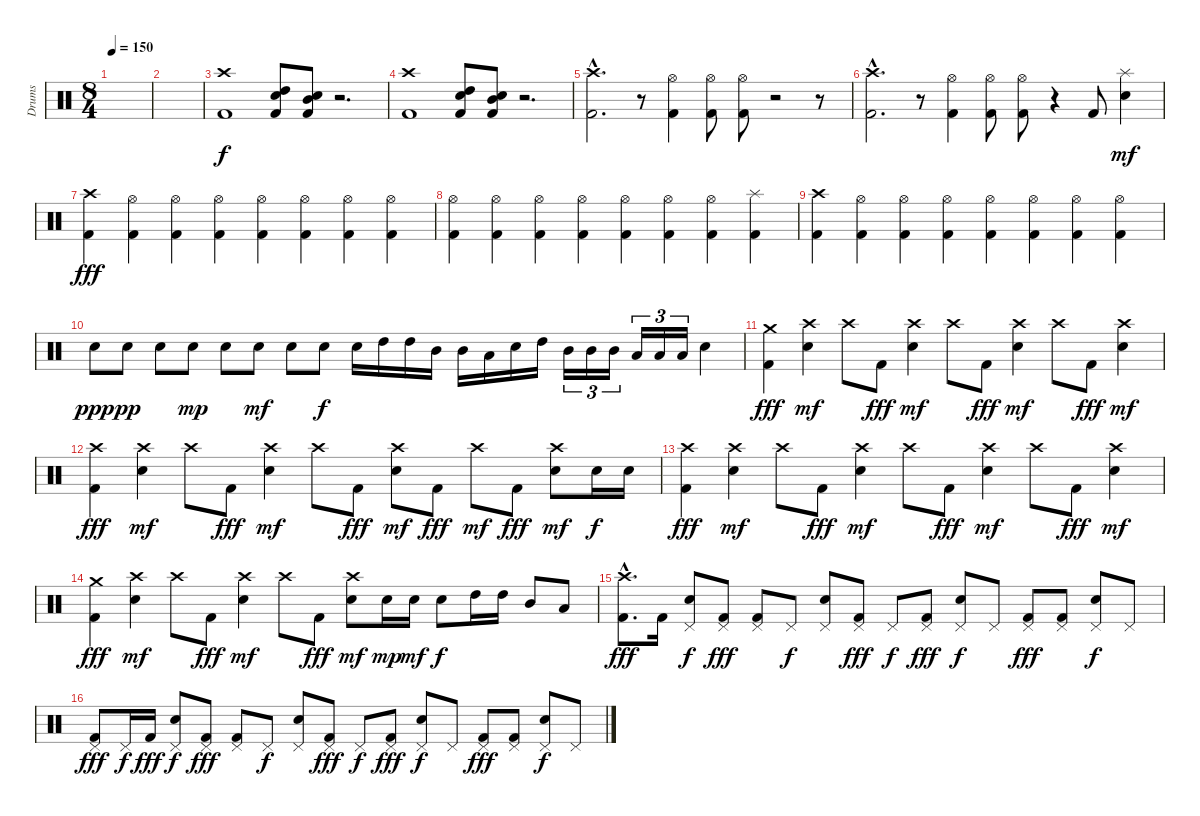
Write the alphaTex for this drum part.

\track ("Drums" "Drums") {instrument percussion}
\staff {score}
\articulation defaults
\ts (8 4)
\tempo 150
\clef neutral
\ks c
|
|
("Crash high (hit)" "Kick (hit) 2").1 ("High Tom (hit)" "Snare (hit) 2" "Kick (hit) 2").8 ("Mid Tom (hit)" "Snare (hit) 2" "Kick (hit) 2").8 r.2{d} |
("Crash high (hit)" "Kick (hit) 2").1 ("High Tom (hit)" "Snare (hit) 2" "Kick (hit) 2").8 ("Mid Tom (hit)" "Snare (hit) 2" "Kick (hit) 2").8 r.2{d} |
("Crash high (hit)"{hac} "Kick (hit) 2"{hac}).2{d} r.8 ("Hi-Hat (open)" "Kick (hit) 2").4 ("Hi-Hat (open)" "Kick (hit) 2").8 ("Hi-Hat (open)" "Kick (hit) 2").8 r.2 r.8 |
("Crash high (hit)"{hac} "Kick (hit) 2"{hac}).2{d} r.8 ("Hi-Hat (open)" "Kick (hit) 2").4 ("Hi-Hat (open)" "Kick (hit) 2").8 ("Hi-Hat (open)" "Kick (hit) 2").8 r.4 "Kick (hit) 2".8 ("Splash (hit)" "Snare (hit) 2").4{dy mf} |
("Crash high (hit)" "Kick (hit) 2").4{dy fff} ("Hi-Hat (open)" "Kick (hit) 2").4 ("Hi-Hat (open)" "Kick (hit) 2").4 ("Hi-Hat (open)" "Kick (hit) 2").4 ("Hi-Hat (open)" "Kick (hit) 2").4 ("Hi-Hat (open)" "Kick (hit) 2").4 ("Hi-Hat (open)" "Kick (hit) 2").4 ("Hi-Hat (open)" "Kick (hit) 2").4 |
("Hi-Hat (open)" "Kick (hit) 2").4 ("Hi-Hat (open)" "Kick (hit) 2").4 ("Hi-Hat (open)" "Kick (hit) 2").4 ("Hi-Hat (open)" "Kick (hit) 2").4 ("Hi-Hat (open)" "Kick (hit) 2").4 ("Hi-Hat (open)" "Kick (hit) 2").4 ("Hi-Hat (open)" "Kick (hit) 2").4 ("Splash (hit)" "Kick (hit) 2").4 |
("Crash high (hit)" "Kick (hit) 2").4 ("Hi-Hat (open)" "Kick (hit) 2").4 ("Hi-Hat (open)" "Kick (hit) 2").4 ("Hi-Hat (open)" "Kick (hit) 2").4 ("Hi-Hat (open)" "Kick (hit) 2").4 ("Hi-Hat (open)" "Kick (hit) 2").4 ("Hi-Hat (open)" "Kick (hit) 2").4 ("Hi-Hat (open)" "Kick (hit) 2").4 |
"Snare (hit) 2".8{dy ppp} "Snare (hit) 2".8{dy pp} "Snare (hit) 2".8 "Snare (hit) 2".8{dy mp} "Snare (hit) 2".8 "Snare (hit) 2".8{dy mf} "Snare (hit) 2".8 "Snare (hit) 2".8{dy f} "Snare (hit) 2".16 "High Tom (hit)".16 "High Tom (hit)".16 "Mid Tom (hit)".16 "Mid Tom (hit)".16 "Low Tom (hit)".16 "Snare (hit) 2".16 "High Tom (hit)".16 "Mid Tom (hit)".16{tu (3 2)} "Mid Tom (hit)".16{tu (3 2)} "Mid Tom (hit)".16{tu (3 2)} "Low Tom (hit)".16{tu (3 2)} "Low Tom (hit)".16{tu (3 2)} "Low Tom (hit)".16{tu (3 2)} "Snare (hit) 2".4 |
("Crash medium (hit)" "Kick (hit) 2").4{dy fff} ("Crash high (hit)" "Snare (hit) 2").4{dy mf} "Crash high (hit)".8 "Kick (hit) 2".8{dy fff} ("Crash high (hit)" "Snare (hit) 2").4{dy mf} "Crash high (hit)".8 "Kick (hit) 2".8{dy fff} ("Crash high (hit)" "Snare (hit) 2").4{dy mf} "Crash high (hit)".8 "Kick (hit) 2".8{dy fff} ("Crash high (hit)" "Snare (hit) 2").4{dy mf} |
("Crash high (hit)" "Kick (hit) 2").4{dy fff} ("Crash high (hit)" "Snare (hit) 2").4{dy mf} "Crash high (hit)".8 "Kick (hit) 2".8{dy fff} ("Crash high (hit)" "Snare (hit) 2").4{dy mf} "Crash high (hit)".8 "Kick (hit) 2".8{dy fff} ("Crash high (hit)" "Snare (hit) 2").8{dy mf} "Kick (hit) 2".8{dy fff} "Crash high (hit)".8{dy mf} "Kick (hit) 2".8{dy fff} ("Crash high (hit)" "Snare (hit) 2").8{dy mf} "Snare (hit) 2".16{dy f} "Snare (hit) 2".16 |
("Crash high (hit)" "Kick (hit) 2").4{dy fff} ("Crash high (hit)" "Snare (hit) 2").4{dy mf} "Crash high (hit)".8 "Kick (hit) 2".8{dy fff} ("Crash high (hit)" "Snare (hit) 2").4{dy mf} "Crash high (hit)".8 "Kick (hit) 2".8{dy fff} ("Crash high (hit)" "Snare (hit) 2").4{dy mf} "Crash high (hit)".8 "Kick (hit) 2".8{dy fff} ("Crash high (hit)" "Snare (hit) 2").4{dy mf} |
("Crash medium (hit)" "Kick (hit) 2").4{dy fff} ("Crash high (hit)" "Snare (hit) 2").4{dy mf} "Crash high (hit)".8 "Kick (hit) 2".8{dy fff} ("Crash high (hit)" "Snare (hit) 2").4{dy mf} "Crash high (hit)".8 "Kick (hit) 2".8{dy fff} ("Crash high (hit)" "Snare (hit) 2").8{dy mf} "Snare (hit) 2".16{dy mp} "Snare (hit) 2".16{dy mf} "Snare (hit) 2".8{dy f} "High Tom (hit)".16 "High Tom (hit)".16 "Mid Tom (hit)".8 "Low Tom (hit)".8 |
("Crash high (hit)"{hac} "Kick (hit) 2"{hac}).8{d dy fff} "Kick (hit) 2".16 ("Pedal Hi-Hat (hit)" "Snare (hit) 2").8{dy f} ("Pedal Hi-Hat (hit)" "Kick (hit) 2").8{dy fff} ("Pedal Hi-Hat (hit)" "Kick (hit) 2").8 "Pedal Hi-Hat (hit)".8{dy f} ("Pedal Hi-Hat (hit)" "Snare (hit) 2").8 ("Pedal Hi-Hat (hit)" "Kick (hit) 2").8{dy fff} "Pedal Hi-Hat (hit)".8{dy f} ("Pedal Hi-Hat (hit)" "Kick (hit) 2").8{dy fff} ("Pedal Hi-Hat (hit)" "Snare (hit) 2").8{dy f} "Pedal Hi-Hat (hit)".8 ("Pedal Hi-Hat (hit)" "Kick (hit) 2").8{dy fff} ("Pedal Hi-Hat (hit)" "Kick (hit) 2").8 ("Pedal Hi-Hat (hit)" "Snare (hit) 2").8{dy f} "Pedal Hi-Hat (hit)".8 |
("Pedal Hi-Hat (hit)" "Kick (hit) 2").8{dy fff} "Pedal Hi-Hat (hit)".16{dy f} "Kick (hit) 2".16{dy fff} ("Pedal Hi-Hat (hit)" "Snare (hit) 2").8{dy f} ("Pedal Hi-Hat (hit)" "Kick (hit) 2").8{dy fff} ("Pedal Hi-Hat (hit)" "Kick (hit) 2").8 "Pedal Hi-Hat (hit)".8{dy f} ("Pedal Hi-Hat (hit)" "Snare (hit) 2").8 ("Pedal Hi-Hat (hit)" "Kick (hit) 2").8{dy fff} "Pedal Hi-Hat (hit)".8{dy f} ("Pedal Hi-Hat (hit)" "Kick (hit) 2").8{dy fff} ("Pedal Hi-Hat (hit)" "Snare (hit) 2").8{dy f} "Pedal Hi-Hat (hit)".8 ("Pedal Hi-Hat (hit)" "Kick (hit) 2").8{dy fff} ("Pedal Hi-Hat (hit)" "Kick (hit) 2").8 ("Pedal Hi-Hat (hit)" "Snare (hit) 2").8{dy f} "Pedal Hi-Hat (hit)".8
